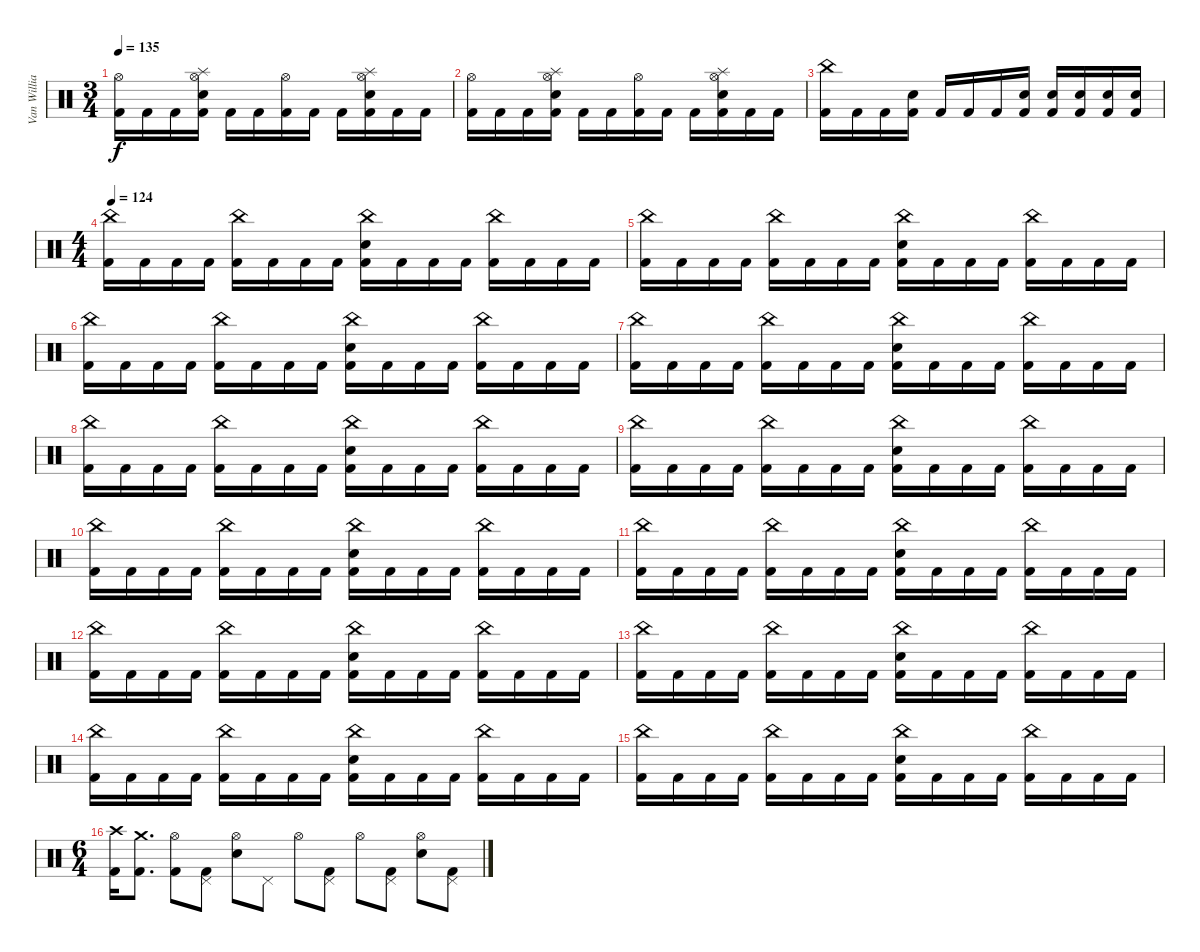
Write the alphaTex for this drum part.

\track ("Van Williams" "Van Willia") {instrument percussion}
\staff {score}
\articulation defaults
\ts (3 4)
\tempo 135
\clef neutral
\ks c
("Hi-Hat (open)" "Kick (hit) 2").16{dy f} "Kick (hit) 2".16 "Kick (hit) 2".16 ("Hi-Hat (open)" "Splash (hit)" "Electric Snare (hit)" "Kick (hit) 2").16 "Kick (hit) 2".16 "Kick (hit) 2".16 ("Hi-Hat (open)" "Kick (hit) 2").16 "Kick (hit) 2".16 "Kick (hit) 2".16 ("Hi-Hat (open)" "Splash (hit)" "Electric Snare (hit)" "Kick (hit) 2").16 "Kick (hit) 2".16 "Kick (hit) 2".16 |
("Hi-Hat (open)" "Kick (hit) 2").16 "Kick (hit) 2".16 "Kick (hit) 2".16 ("Hi-Hat (open)" "Splash (hit)" "Electric Snare (hit)" "Kick (hit) 2").16 "Kick (hit) 2".16 "Kick (hit) 2".16 ("Hi-Hat (open)" "Kick (hit) 2").16 "Kick (hit) 2".16 "Kick (hit) 2".16 ("Hi-Hat (open)" "Splash (hit)" "Electric Snare (hit)" "Kick (hit) 2").16 "Kick (hit) 2".16 "Kick (hit) 2".16 |
("China (hit)" "Kick (hit) 2").16 "Kick (hit) 2".16 "Kick (hit) 2".16 ("Electric Snare (hit)" "Kick (hit) 2").16 "Kick (hit) 2".16 "Kick (hit) 2".16 "Kick (hit) 2".16 ("Electric Snare (hit)" "Kick (hit) 2").16 ("Electric Snare (hit)" "Kick (hit) 2").16 ("Electric Snare (hit)" "Kick (hit) 2").16 ("Electric Snare (hit)" "Kick (hit) 2").16 ("Electric Snare (hit)" "Kick (hit) 2").16 |
\ts (4 4)
\tempo 124
("China (hit)" "Kick (hit) 2").16 "Kick (hit) 2".16 "Kick (hit) 2".16 "Kick (hit) 2".16 ("China (hit)" "Kick (hit) 2").16 "Kick (hit) 2".16 "Kick (hit) 2".16 "Kick (hit) 2".16 ("China (hit)" "Electric Snare (hit)" "Kick (hit) 2").16 "Kick (hit) 2".16 "Kick (hit) 2".16 "Kick (hit) 2".16 ("China (hit)" "Kick (hit) 2").16 "Kick (hit) 2".16 "Kick (hit) 2".16 "Kick (hit) 2".16 |
("China (hit)" "Kick (hit) 2").16 "Kick (hit) 2".16 "Kick (hit) 2".16 "Kick (hit) 2".16 ("China (hit)" "Kick (hit) 2").16 "Kick (hit) 2".16 "Kick (hit) 2".16 "Kick (hit) 2".16 ("China (hit)" "Electric Snare (hit)" "Kick (hit) 2").16 "Kick (hit) 2".16 "Kick (hit) 2".16 "Kick (hit) 2".16 ("China (hit)" "Kick (hit) 2").16 "Kick (hit) 2".16 "Kick (hit) 2".16 "Kick (hit) 2".16 |
("China (hit)" "Kick (hit) 2").16 "Kick (hit) 2".16 "Kick (hit) 2".16 "Kick (hit) 2".16 ("China (hit)" "Kick (hit) 2").16 "Kick (hit) 2".16 "Kick (hit) 2".16 "Kick (hit) 2".16 ("China (hit)" "Electric Snare (hit)" "Kick (hit) 2").16 "Kick (hit) 2".16 "Kick (hit) 2".16 "Kick (hit) 2".16 ("China (hit)" "Kick (hit) 2").16 "Kick (hit) 2".16 "Kick (hit) 2".16 "Kick (hit) 2".16 |
("China (hit)" "Kick (hit) 2").16 "Kick (hit) 2".16 "Kick (hit) 2".16 "Kick (hit) 2".16 ("China (hit)" "Kick (hit) 2").16 "Kick (hit) 2".16 "Kick (hit) 2".16 "Kick (hit) 2".16 ("China (hit)" "Electric Snare (hit)" "Kick (hit) 2").16 "Kick (hit) 2".16 "Kick (hit) 2".16 "Kick (hit) 2".16 ("China (hit)" "Kick (hit) 2").16 "Kick (hit) 2".16 "Kick (hit) 2".16 "Kick (hit) 2".16 |
("China (hit)" "Kick (hit) 2").16 "Kick (hit) 2".16 "Kick (hit) 2".16 "Kick (hit) 2".16 ("China (hit)" "Kick (hit) 2").16 "Kick (hit) 2".16 "Kick (hit) 2".16 "Kick (hit) 2".16 ("China (hit)" "Electric Snare (hit)" "Kick (hit) 2").16 "Kick (hit) 2".16 "Kick (hit) 2".16 "Kick (hit) 2".16 ("China (hit)" "Kick (hit) 2").16 "Kick (hit) 2".16 "Kick (hit) 2".16 "Kick (hit) 2".16 |
("China (hit)" "Kick (hit) 2").16 "Kick (hit) 2".16 "Kick (hit) 2".16 "Kick (hit) 2".16 ("China (hit)" "Kick (hit) 2").16 "Kick (hit) 2".16 "Kick (hit) 2".16 "Kick (hit) 2".16 ("China (hit)" "Electric Snare (hit)" "Kick (hit) 2").16 "Kick (hit) 2".16 "Kick (hit) 2".16 "Kick (hit) 2".16 ("China (hit)" "Kick (hit) 2").16 "Kick (hit) 2".16 "Kick (hit) 2".16 "Kick (hit) 2".16 |
("China (hit)" "Kick (hit) 2").16 "Kick (hit) 2".16 "Kick (hit) 2".16 "Kick (hit) 2".16 ("China (hit)" "Kick (hit) 2").16 "Kick (hit) 2".16 "Kick (hit) 2".16 "Kick (hit) 2".16 ("China (hit)" "Electric Snare (hit)" "Kick (hit) 2").16 "Kick (hit) 2".16 "Kick (hit) 2".16 "Kick (hit) 2".16 ("China (hit)" "Kick (hit) 2").16 "Kick (hit) 2".16 "Kick (hit) 2".16 "Kick (hit) 2".16 |
("China (hit)" "Kick (hit) 2").16 "Kick (hit) 2".16 "Kick (hit) 2".16 "Kick (hit) 2".16 ("China (hit)" "Kick (hit) 2").16 "Kick (hit) 2".16 "Kick (hit) 2".16 "Kick (hit) 2".16 ("China (hit)" "Electric Snare (hit)" "Kick (hit) 2").16 "Kick (hit) 2".16 "Kick (hit) 2".16 "Kick (hit) 2".16 ("China (hit)" "Kick (hit) 2").16 "Kick (hit) 2".16 "Kick (hit) 2".16 "Kick (hit) 2".16 |
("China (hit)" "Kick (hit) 2").16 "Kick (hit) 2".16 "Kick (hit) 2".16 "Kick (hit) 2".16 ("China (hit)" "Kick (hit) 2").16 "Kick (hit) 2".16 "Kick (hit) 2".16 "Kick (hit) 2".16 ("China (hit)" "Electric Snare (hit)" "Kick (hit) 2").16 "Kick (hit) 2".16 "Kick (hit) 2".16 "Kick (hit) 2".16 ("China (hit)" "Kick (hit) 2").16 "Kick (hit) 2".16 "Kick (hit) 2".16 "Kick (hit) 2".16 |
("China (hit)" "Kick (hit) 2").16 "Kick (hit) 2".16 "Kick (hit) 2".16 "Kick (hit) 2".16 ("China (hit)" "Kick (hit) 2").16 "Kick (hit) 2".16 "Kick (hit) 2".16 "Kick (hit) 2".16 ("China (hit)" "Electric Snare (hit)" "Kick (hit) 2").16 "Kick (hit) 2".16 "Kick (hit) 2".16 "Kick (hit) 2".16 ("China (hit)" "Kick (hit) 2").16 "Kick (hit) 2".16 "Kick (hit) 2".16 "Kick (hit) 2".16 |
("China (hit)" "Kick (hit) 2").16 "Kick (hit) 2".16 "Kick (hit) 2".16 "Kick (hit) 2".16 ("China (hit)" "Kick (hit) 2").16 "Kick (hit) 2".16 "Kick (hit) 2".16 "Kick (hit) 2".16 ("China (hit)" "Electric Snare (hit)" "Kick (hit) 2").16 "Kick (hit) 2".16 "Kick (hit) 2".16 "Kick (hit) 2".16 ("China (hit)" "Kick (hit) 2").16 "Kick (hit) 2".16 "Kick (hit) 2".16 "Kick (hit) 2".16 |
("China (hit)" "Kick (hit) 2").16 "Kick (hit) 2".16 "Kick (hit) 2".16 "Kick (hit) 2".16 ("China (hit)" "Kick (hit) 2").16 "Kick (hit) 2".16 "Kick (hit) 2".16 "Kick (hit) 2".16 ("China (hit)" "Electric Snare (hit)" "Kick (hit) 2").16 "Kick (hit) 2".16 "Kick (hit) 2".16 "Kick (hit) 2".16 ("China (hit)" "Kick (hit) 2").16 "Kick (hit) 2".16 "Kick (hit) 2".16 "Kick (hit) 2".16 |
\ts (6 4)
("Crash high (hit)" "Kick (hit) 2").16 ("Crash medium (hit)" "Kick (hit) 2").8{d} ("Hi-Hat (open)" "Kick (hit) 2").8 ("Pedal Hi-Hat (hit)" "Kick (hit) 2").8 ("Hi-Hat (open)" "Electric Snare (hit)").8 "Pedal Hi-Hat (hit)".8 "Hi-Hat (open)".8 ("Pedal Hi-Hat (hit)" "Kick (hit) 2").8 "Hi-Hat (open)".8 ("Pedal Hi-Hat (hit)" "Kick (hit) 2").8 ("Hi-Hat (open)" "Electric Snare (hit)").8 ("Pedal Hi-Hat (hit)" "Kick (hit) 2").8
